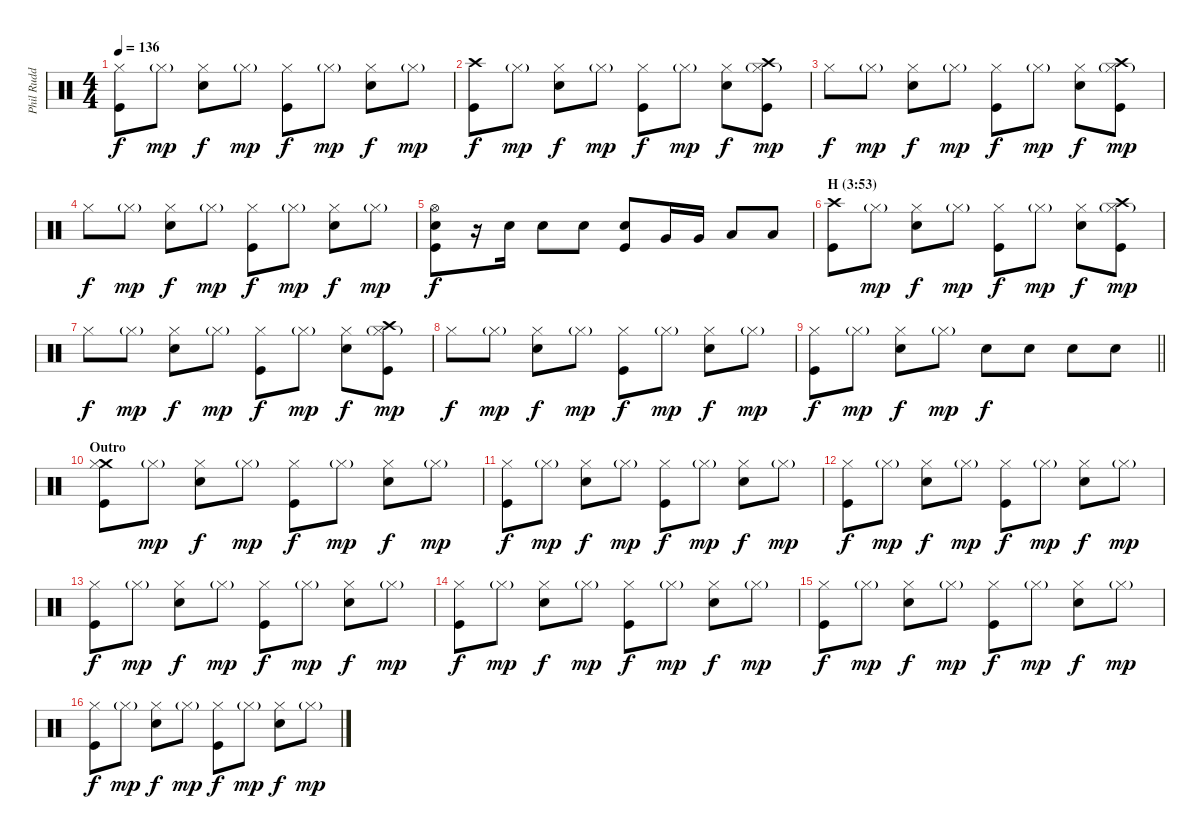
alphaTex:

\track ("Phil Rudd" "Phil Rudd") {instrument percussion}
\staff {score}
\articulation defaults
\ts (4 4)
\tempo 136
\clef neutral
\ks c
("Hi-Hat (closed)" "Kick (hit)").8{dy f} "Hi-Hat (closed)"{g}.8{dy mp} ("Hi-Hat (closed)" "Electric Snare (hit)").8{dy f} "Hi-Hat (closed)"{g}.8{dy mp} ("Hi-Hat (closed)" "Kick (hit)").8{dy f} "Hi-Hat (closed)"{g}.8{dy mp} ("Hi-Hat (closed)" "Electric Snare (hit)").8{dy f} "Hi-Hat (closed)"{g}.8{dy mp} |
("Crash high (hit)" "Kick (hit)").8{dy f} "Hi-Hat (closed)"{g}.8{dy mp} ("Hi-Hat (closed)" "Electric Snare (hit)").8{dy f} "Hi-Hat (closed)"{g}.8{dy mp} ("Hi-Hat (closed)" "Kick (hit)").8{dy f} "Hi-Hat (closed)"{g}.8{dy mp} ("Hi-Hat (closed)" "Electric Snare (hit)").8{dy f} ("Crash high (hit)" "Hi-Hat (closed)"{g} "Kick (hit)").8{dy mp} |
"Hi-Hat (closed)".8{dy f} "Hi-Hat (closed)"{g}.8{dy mp} ("Hi-Hat (closed)" "Electric Snare (hit)").8{dy f} "Hi-Hat (closed)"{g}.8{dy mp} ("Hi-Hat (closed)" "Kick (hit)").8{dy f} "Hi-Hat (closed)"{g}.8{dy mp} ("Hi-Hat (closed)" "Electric Snare (hit)").8{dy f} ("Crash high (hit)" "Hi-Hat (closed)"{g} "Kick (hit)").8{dy mp} |
"Hi-Hat (closed)".8{dy f} "Hi-Hat (closed)"{g}.8{dy mp} ("Hi-Hat (closed)" "Electric Snare (hit)").8{dy f} "Hi-Hat (closed)"{g}.8{dy mp} ("Hi-Hat (closed)" "Kick (hit)").8{dy f} "Hi-Hat (closed)"{g}.8{dy mp} ("Hi-Hat (closed)" "Electric Snare (hit)").8{dy f} "Hi-Hat (closed)"{g}.8{dy mp} |
("Hi-Hat (open)" "Electric Snare (hit)" "Kick (hit)").8{dy f} r.16 "Electric Snare (hit)".16 "Electric Snare (hit)".8 "Electric Snare (hit)".8 ("Electric Snare (hit)" "Kick (hit)").8 "Very Low Tom (hit)".16 "Very Low Tom (hit)".16 "Low Floor Tom (hit)".8 "Low Floor Tom (hit)".8 |
\section ("" "H (3:53)")
("Crash high (hit)" "Kick (hit)").8 "Hi-Hat (closed)"{g}.8{dy mp} ("Hi-Hat (closed)" "Electric Snare (hit)").8{dy f} "Hi-Hat (closed)"{g}.8{dy mp} ("Hi-Hat (closed)" "Kick (hit)").8{dy f} "Hi-Hat (closed)"{g}.8{dy mp} ("Hi-Hat (closed)" "Electric Snare (hit)").8{dy f} ("Crash high (hit)" "Hi-Hat (closed)"{g} "Kick (hit)").8{dy mp} |
"Hi-Hat (closed)".8{dy f} "Hi-Hat (closed)"{g}.8{dy mp} ("Hi-Hat (closed)" "Electric Snare (hit)").8{dy f} "Hi-Hat (closed)"{g}.8{dy mp} ("Hi-Hat (closed)" "Kick (hit)").8{dy f} "Hi-Hat (closed)"{g}.8{dy mp} ("Hi-Hat (closed)" "Electric Snare (hit)").8{dy f} ("Crash high (hit)" "Hi-Hat (closed)"{g} "Kick (hit)").8{dy mp} |
"Hi-Hat (closed)".8{dy f} "Hi-Hat (closed)"{g}.8{dy mp} ("Hi-Hat (closed)" "Electric Snare (hit)").8{dy f} "Hi-Hat (closed)"{g}.8{dy mp} ("Hi-Hat (closed)" "Kick (hit)").8{dy f} "Hi-Hat (closed)"{g}.8{dy mp} ("Hi-Hat (closed)" "Electric Snare (hit)").8{dy f} "Hi-Hat (closed)"{g}.8{dy mp} |
\barLineRight lightlight
("Hi-Hat (closed)" "Kick (hit)").8{dy f} "Hi-Hat (closed)"{g}.8{dy mp} ("Hi-Hat (closed)" "Electric Snare (hit)").8{dy f} "Hi-Hat (closed)"{g}.8{dy mp} "Electric Snare (hit)".8{dy f} "Electric Snare (hit)".8 "Electric Snare (hit)".8 "Electric Snare (hit)".8 |
\section ("" "Outro")
("Crash medium (hit)" "Hi-Hat (closed)" "Kick (hit)").8 "Hi-Hat (closed)"{g}.8{dy mp} ("Hi-Hat (closed)" "Electric Snare (hit)").8{dy f} "Hi-Hat (closed)"{g}.8{dy mp} ("Hi-Hat (closed)" "Kick (hit)").8{dy f} "Hi-Hat (closed)"{g}.8{dy mp} ("Hi-Hat (closed)" "Electric Snare (hit)").8{dy f} "Hi-Hat (closed)"{g}.8{dy mp} |
("Hi-Hat (closed)" "Kick (hit)").8{dy f} "Hi-Hat (closed)"{g}.8{dy mp} ("Hi-Hat (closed)" "Electric Snare (hit)").8{dy f} "Hi-Hat (closed)"{g}.8{dy mp} ("Hi-Hat (closed)" "Kick (hit)").8{dy f} "Hi-Hat (closed)"{g}.8{dy mp} ("Hi-Hat (closed)" "Electric Snare (hit)").8{dy f} "Hi-Hat (closed)"{g}.8{dy mp} |
("Hi-Hat (closed)" "Kick (hit)").8{dy f} "Hi-Hat (closed)"{g}.8{dy mp} ("Hi-Hat (closed)" "Electric Snare (hit)").8{dy f} "Hi-Hat (closed)"{g}.8{dy mp} ("Hi-Hat (closed)" "Kick (hit)").8{dy f} "Hi-Hat (closed)"{g}.8{dy mp} ("Hi-Hat (closed)" "Electric Snare (hit)").8{dy f} "Hi-Hat (closed)"{g}.8{dy mp} |
("Hi-Hat (closed)" "Kick (hit)").8{dy f} "Hi-Hat (closed)"{g}.8{dy mp} ("Hi-Hat (closed)" "Electric Snare (hit)").8{dy f} "Hi-Hat (closed)"{g}.8{dy mp} ("Hi-Hat (closed)" "Kick (hit)").8{dy f} "Hi-Hat (closed)"{g}.8{dy mp} ("Hi-Hat (closed)" "Electric Snare (hit)").8{dy f} "Hi-Hat (closed)"{g}.8{dy mp} |
("Hi-Hat (closed)" "Kick (hit)").8{dy f} "Hi-Hat (closed)"{g}.8{dy mp} ("Hi-Hat (closed)" "Electric Snare (hit)").8{dy f} "Hi-Hat (closed)"{g}.8{dy mp} ("Hi-Hat (closed)" "Kick (hit)").8{dy f} "Hi-Hat (closed)"{g}.8{dy mp} ("Hi-Hat (closed)" "Electric Snare (hit)").8{dy f} "Hi-Hat (closed)"{g}.8{dy mp} |
("Hi-Hat (closed)" "Kick (hit)").8{dy f} "Hi-Hat (closed)"{g}.8{dy mp} ("Hi-Hat (closed)" "Electric Snare (hit)").8{dy f} "Hi-Hat (closed)"{g}.8{dy mp} ("Hi-Hat (closed)" "Kick (hit)").8{dy f} "Hi-Hat (closed)"{g}.8{dy mp} ("Hi-Hat (closed)" "Electric Snare (hit)").8{dy f} "Hi-Hat (closed)"{g}.8{dy mp} |
("Hi-Hat (closed)" "Kick (hit)").8{dy f} "Hi-Hat (closed)"{g}.8{dy mp} ("Hi-Hat (closed)" "Electric Snare (hit)").8{dy f} "Hi-Hat (closed)"{g}.8{dy mp} ("Hi-Hat (closed)" "Kick (hit)").8{dy f} "Hi-Hat (closed)"{g}.8{dy mp} ("Hi-Hat (closed)" "Electric Snare (hit)").8{dy f} "Hi-Hat (closed)"{g}.8{dy mp}
